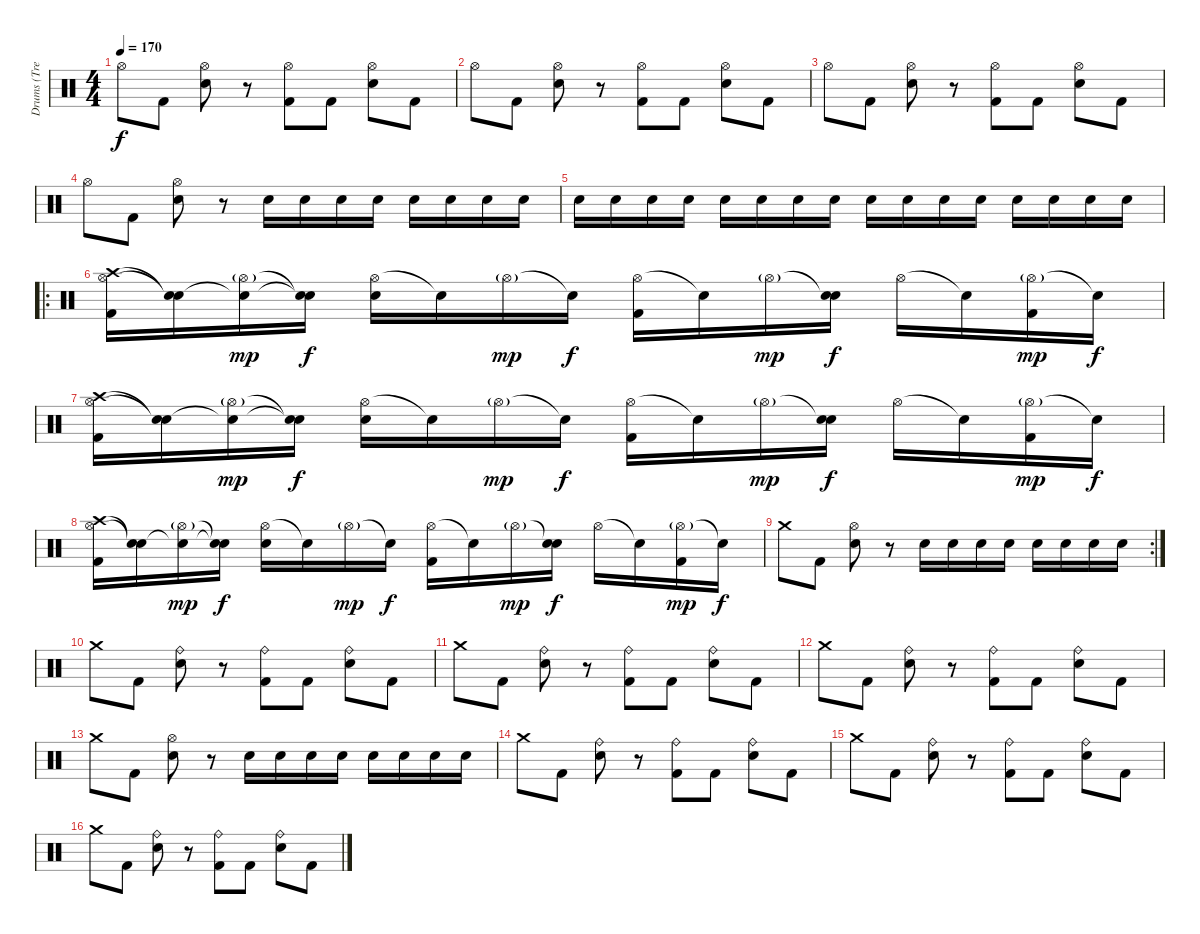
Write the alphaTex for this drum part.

\track ("Drums (Tre Cool)" "Drums (Tre") {instrument percussion}
\staff {score}
\articulation defaults
\ts (4 4)
\tempo 170
\clef neutral
\ks c "Hi-Hat (open)".8{dy f} "Kick (hit) 2".8
("Hi-Hat (open)" "Electric Snare (hit)").8 r.8 ("Hi-Hat (open)" "Kick (hit) 2").8 "Kick (hit) 2".8 ("Hi-Hat (open)" "Electric Snare (hit)").8 "Kick (hit) 2".8 |
"Hi-Hat (open)".8 "Kick (hit) 2".8 ("Hi-Hat (open)" "Electric Snare (hit)").8 r.8 ("Hi-Hat (open)" "Kick (hit) 2").8 "Kick (hit) 2".8 ("Hi-Hat (open)" "Electric Snare (hit)").8 "Kick (hit) 2".8 |
"Hi-Hat (open)".8 "Kick (hit) 2".8 ("Hi-Hat (open)" "Electric Snare (hit)").8 r.8 ("Hi-Hat (open)" "Kick (hit) 2").8 "Kick (hit) 2".8 ("Hi-Hat (open)" "Electric Snare (hit)").8 "Kick (hit) 2".8 |
"Hi-Hat (open)".8 "Kick (hit) 2".8 ("Hi-Hat (open)" "Electric Snare (hit)").8 r.8 "Electric Snare (hit)".16 "Electric Snare (hit)".16 "Electric Snare (hit)".16 "Electric Snare (hit)".16 "Electric Snare (hit)".16 "Electric Snare (hit)".16 "Electric Snare (hit)".16 "Electric Snare (hit)".16 |
"Electric Snare (hit)".16 "Electric Snare (hit)".16 "Electric Snare (hit)".16 "Electric Snare (hit)".16 "Electric Snare (hit)".16 "Electric Snare (hit)".16 "Electric Snare (hit)".16 "Electric Snare (hit)".16 "Electric Snare (hit)".16 "Electric Snare (hit)".16 "Electric Snare (hit)".16 "Electric Snare (hit)".16 "Electric Snare (hit)".16 "Electric Snare (hit)".16 "Electric Snare (hit)".16 "Electric Snare (hit)".16 |
\ro
("Crash high (hit)" "Hi-Hat (open)" "Kick (hit) 2").16 ("Snare (hit)"{t} "Snare (hit)"{t}).16 ("Snare (hit)"{t} "Hi-Hat (open)"{g}).16{dy mp} ("Snare (hit)"{t} "Snare (hit)"{t}).16{dy f} ("Hi-Hat (open)" "Electric Snare (hit)").16 "Snare (hit)"{t}.16 "Hi-Hat (open)"{g}.16{dy mp} "Snare (hit)"{t}.16{dy f} ("Hi-Hat (open)" "Kick (hit) 2").16 "Snare (hit)"{t}.16 "Hi-Hat (open)"{g}.16{dy mp} ("Snare (hit)"{t} "Electric Snare (hit)").16{dy f} "Hi-Hat (open)".16 "Snare (hit)"{t}.16 ("Hi-Hat (open)"{g} "Kick (hit) 2").16{dy mp} "Snare (hit)"{t}.16{dy f} |
("Crash high (hit)" "Hi-Hat (open)" "Kick (hit) 2").16 ("Snare (hit)"{t} "Snare (hit)"{t}).16 ("Snare (hit)"{t} "Hi-Hat (open)"{g}).16{dy mp} ("Snare (hit)"{t} "Snare (hit)"{t}).16{dy f} ("Hi-Hat (open)" "Electric Snare (hit)").16 "Snare (hit)"{t}.16 "Hi-Hat (open)"{g}.16{dy mp} "Snare (hit)"{t}.16{dy f} ("Hi-Hat (open)" "Kick (hit) 2").16 "Snare (hit)"{t}.16 "Hi-Hat (open)"{g}.16{dy mp} ("Snare (hit)"{t} "Electric Snare (hit)").16{dy f} "Hi-Hat (open)".16 "Snare (hit)"{t}.16 ("Hi-Hat (open)"{g} "Kick (hit) 2").16{dy mp} "Snare (hit)"{t}.16{dy f} |
("Crash high (hit)" "Hi-Hat (open)" "Kick (hit) 2").16 ("Snare (hit)"{t} "Snare (hit)"{t}).16 ("Snare (hit)"{t} "Hi-Hat (open)"{g}).16{dy mp} ("Snare (hit)"{t} "Snare (hit)"{t}).16{dy f} ("Hi-Hat (open)" "Electric Snare (hit)").16 "Snare (hit)"{t}.16 "Hi-Hat (open)"{g}.16{dy mp} "Snare (hit)"{t}.16{dy f} ("Hi-Hat (open)" "Kick (hit) 2").16 "Snare (hit)"{t}.16 "Hi-Hat (open)"{g}.16{dy mp} ("Snare (hit)"{t} "Electric Snare (hit)").16{dy f} "Hi-Hat (open)".16 "Snare (hit)"{t}.16 ("Hi-Hat (open)"{g} "Kick (hit) 2").16{dy mp} "Snare (hit)"{t}.16{dy f} |
\rc 2 "Crash medium (hit)".8 "Kick (hit) 2".8
("Hi-Hat (open)" "Electric Snare (hit)").8 r.8 "Electric Snare (hit)".16 "Electric Snare (hit)".16 "Electric Snare (hit)".16 "Electric Snare (hit)".16 "Electric Snare (hit)".16 "Electric Snare (hit)".16 "Electric Snare (hit)".16 "Electric Snare (hit)".16 |
"Crash medium (hit)".8 "Kick (hit) 2".8 ("Ride (bell)" "Electric Snare (hit)").8 r.8 ("Ride (bell)" "Kick (hit) 2").8 "Kick (hit) 2".8 ("Ride (bell)" "Electric Snare (hit)").8 "Kick (hit) 2".8 |
"Crash medium (hit)".8 "Kick (hit) 2".8 ("Ride (bell)" "Electric Snare (hit)").8 r.8 ("Ride (bell)" "Kick (hit) 2").8 "Kick (hit) 2".8 ("Ride (bell)" "Electric Snare (hit)").8 "Kick (hit) 2".8 |
"Crash medium (hit)".8 "Kick (hit) 2".8 ("Ride (bell)" "Electric Snare (hit)").8 r.8 ("Ride (bell)" "Kick (hit) 2").8 "Kick (hit) 2".8 ("Ride (bell)" "Electric Snare (hit)").8 "Kick (hit) 2".8 |
"Crash medium (hit)".8 "Kick (hit) 2".8 ("Hi-Hat (open)" "Electric Snare (hit)").8 r.8 "Electric Snare (hit)".16 "Electric Snare (hit)".16 "Electric Snare (hit)".16 "Electric Snare (hit)".16 "Electric Snare (hit)".16 "Electric Snare (hit)".16 "Electric Snare (hit)".16 "Electric Snare (hit)".16 |
"Crash medium (hit)".8 "Kick (hit) 2".8 ("Ride (bell)" "Electric Snare (hit)").8 r.8 ("Ride (bell)" "Kick (hit) 2").8 "Kick (hit) 2".8 ("Ride (bell)" "Electric Snare (hit)").8 "Kick (hit) 2".8 |
"Crash medium (hit)".8 "Kick (hit) 2".8 ("Ride (bell)" "Electric Snare (hit)").8 r.8 ("Ride (bell)" "Kick (hit) 2").8 "Kick (hit) 2".8 ("Ride (bell)" "Electric Snare (hit)").8 "Kick (hit) 2".8 |
"Crash medium (hit)".8 "Kick (hit) 2".8 ("Ride (bell)" "Electric Snare (hit)").8 r.8 ("Ride (bell)" "Kick (hit) 2").8 "Kick (hit) 2".8 ("Ride (bell)" "Electric Snare (hit)").8 "Kick (hit) 2".8
